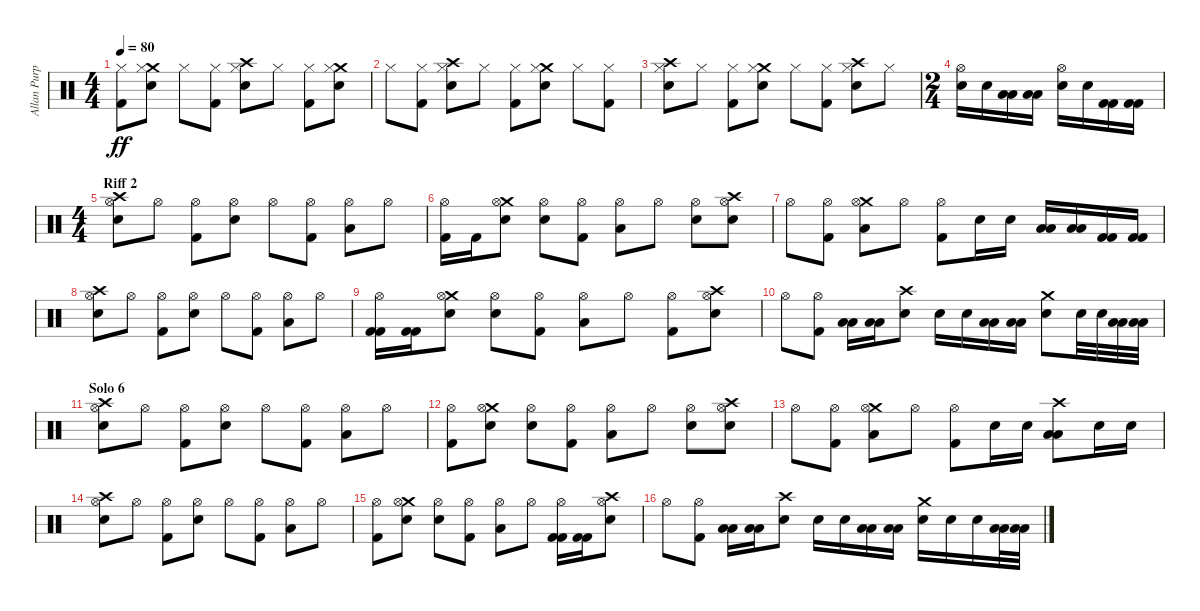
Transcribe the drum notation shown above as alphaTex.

\track ("Allan Purple" "Allan Purp") {instrument percussion}
\staff {score}
\articulation defaults
\ts (4 4)
\tempo 80
\clef neutral
\ks c
("Hi-Hat (closed)" "Kick (hit) 2").8{dy ff} ("Crash medium (hit)" "Hi-Hat (closed)" "Snare (hit) 2").8 "Hi-Hat (closed)".8 ("Hi-Hat (closed)" "Kick (hit) 2").8 ("Crash high (hit)" "Hi-Hat (closed)" "Electric Snare (hit)").8 "Hi-Hat (closed)".8 ("Hi-Hat (closed)" "Kick (hit) 2").8 ("Crash medium (hit)" "Hi-Hat (closed)" "Snare (hit) 2").8 |
"Hi-Hat (closed)".8 ("Hi-Hat (closed)" "Kick (hit) 2").8 ("Crash high (hit)" "Hi-Hat (closed)" "Electric Snare (hit)").8 "Hi-Hat (closed)".8 ("Hi-Hat (closed)" "Kick (hit) 2").8 ("Crash medium (hit)" "Hi-Hat (closed)" "Snare (hit) 2").8 "Hi-Hat (closed)".8 ("Hi-Hat (closed)" "Kick (hit) 2").8 |
("Crash high (hit)" "Hi-Hat (closed)" "Electric Snare (hit)").8 "Hi-Hat (closed)".8 ("Hi-Hat (closed)" "Kick (hit) 2").8 ("Crash medium (hit)" "Hi-Hat (closed)" "Snare (hit) 2").8 "Hi-Hat (closed)".8 ("Hi-Hat (closed)" "Kick (hit) 2").8 ("Crash high (hit)" "Hi-Hat (closed)" "Electric Snare (hit)").8 "Hi-Hat (closed)".8 |
\ts (2 4)
("Hi-Hat (open)" "Electric Snare (hit)").16 "Electric Snare (hit)".16 ("Low Tom (hit)" "Low Tom (hit)").16 ("Low Tom (hit)" "Low Tom (hit)").16 ("Hi-Hat (open)" "Snare (hit) 2").16 "Snare (hit) 2".16 ("Kick (hit) 2" "Kick (hit) 2").16 ("Kick (hit) 2" "Kick (hit) 2").16 |
\ts (4 4)
\section ("" "Riff 2")
("Crash high (hit)" "Hi-Hat (open)" "Snare (hit) 2").8 "Hi-Hat (open)".8 ("Hi-Hat (open)" "Kick (hit) 2").8 ("Hi-Hat (open)" "Snare (hit) 2").8 "Hi-Hat (open)".8 ("Hi-Hat (open)" "Kick (hit) 2").8 ("Hi-Hat (open)" "Low Tom (hit)").8 "Hi-Hat (open)".8 |
("Hi-Hat (open)" "Kick (hit) 2").16 "Kick (hit) 2".16 ("Crash medium (hit)" "Hi-Hat (open)" "Snare (hit) 2").8 ("Hi-Hat (open)" "Electric Snare (hit)").8 ("Hi-Hat (open)" "Kick (hit) 2").8 ("Hi-Hat (open)" "Low Tom (hit)").8 "Hi-Hat (open)".8 ("Hi-Hat (open)" "Snare (hit) 2").8 ("Crash high (hit)" "Hi-Hat (open)" "Snare (hit) 2").8 |
"Hi-Hat (open)".8 ("Hi-Hat (open)" "Kick (hit) 2").8 ("Crash medium (hit)" "Hi-Hat (open)" "Low Tom (hit)").8 "Hi-Hat (open)".8 ("Hi-Hat (open)" "Kick (hit) 2").8 "Electric Snare (hit)".16 "Electric Snare (hit)".16 ("Low Tom (hit)" "Low Tom (hit)").16 ("Low Tom (hit)" "Low Tom (hit)").16 ("Kick (hit) 2" "Kick (hit) 2").16 ("Kick (hit) 2" "Kick (hit) 2").16 |
("Crash high (hit)" "Hi-Hat (open)" "Snare (hit) 2").8 "Hi-Hat (open)".8 ("Hi-Hat (open)" "Kick (hit) 2").8 ("Hi-Hat (open)" "Snare (hit) 2").8 "Hi-Hat (open)".8 ("Hi-Hat (open)" "Kick (hit) 2").8 ("Hi-Hat (open)" "Low Tom (hit)").8 "Hi-Hat (open)".8 |
("Hi-Hat (open)" "Kick (hit) 2" "Kick (hit) 2").16 ("Kick (hit) 2" "Kick (hit) 2").16 ("Crash medium (hit)" "Hi-Hat (open)" "Snare (hit) 2").8 ("Hi-Hat (open)" "Electric Snare (hit)").8 ("Hi-Hat (open)" "Kick (hit) 2").8 ("Hi-Hat (open)" "Low Tom (hit)").8 "Hi-Hat (open)".8 ("Hi-Hat (open)" "Kick (hit) 2").8 ("Crash high (hit)" "Hi-Hat (open)" "Snare (hit) 2").8 |
"Hi-Hat (open)".8 ("Hi-Hat (open)" "Kick (hit) 2").8 ("Low Tom (hit)" "Low Tom (hit)").16 ("Low Tom (hit)" "Low Tom (hit)").16 ("Crash high (hit)" "Electric Snare (hit)").8 "Electric Snare (hit)".16 "Electric Snare (hit)".16 ("Low Tom (hit)" "Low Tom (hit)").16 ("Low Tom (hit)" "Low Tom (hit)").16 ("Crash medium (hit)" "Snare (hit) 2").8 "Electric Snare (hit)".32 "Electric Snare (hit)".32 ("Low Tom (hit)" "Low Tom (hit)").32 ("Low Tom (hit)" "Low Tom (hit)").32 |
\section ("" "Solo 6")
("Crash high (hit)" "Hi-Hat (open)" "Snare (hit) 2").8 "Hi-Hat (open)".8 ("Hi-Hat (open)" "Kick (hit) 2").8 ("Hi-Hat (open)" "Snare (hit) 2").8 "Hi-Hat (open)".8 ("Hi-Hat (open)" "Kick (hit) 2").8 ("Hi-Hat (open)" "Low Tom (hit)").8 "Hi-Hat (open)".8 |
("Hi-Hat (open)" "Kick (hit) 2").8 ("Crash medium (hit)" "Hi-Hat (open)" "Snare (hit) 2").8 ("Hi-Hat (open)" "Electric Snare (hit)").8 ("Hi-Hat (open)" "Kick (hit) 2").8 ("Hi-Hat (open)" "Low Tom (hit)").8 "Hi-Hat (open)".8 ("Hi-Hat (open)" "Snare (hit) 2").8 ("Crash high (hit)" "Hi-Hat (open)" "Snare (hit) 2").8 |
"Hi-Hat (open)".8 ("Hi-Hat (open)" "Kick (hit) 2").8 ("Crash medium (hit)" "Hi-Hat (open)" "Low Tom (hit)").8 "Hi-Hat (open)".8 ("Hi-Hat (open)" "Kick (hit) 2").8 "Electric Snare (hit)".16 "Electric Snare (hit)".16 ("Crash high (hit)" "Low Tom (hit)" "Low Tom (hit)").8 "Electric Snare (hit)".16 "Electric Snare (hit)".16 |
("Crash high (hit)" "Hi-Hat (open)" "Snare (hit) 2").8 "Hi-Hat (open)".8 ("Hi-Hat (open)" "Kick (hit) 2").8 ("Hi-Hat (open)" "Snare (hit) 2").8 "Hi-Hat (open)".8 ("Hi-Hat (open)" "Kick (hit) 2").8 ("Hi-Hat (open)" "Low Tom (hit)").8 "Hi-Hat (open)".8 |
("Hi-Hat (open)" "Kick (hit) 2").8 ("Crash medium (hit)" "Hi-Hat (open)" "Snare (hit) 2").8 ("Hi-Hat (open)" "Electric Snare (hit)").8 ("Hi-Hat (open)" "Kick (hit) 2").8 ("Hi-Hat (open)" "Low Tom (hit)").8 "Hi-Hat (open)".8 ("Hi-Hat (open)" "Kick (hit) 2" "Kick (hit) 2").16 ("Kick (hit) 2" "Kick (hit) 2").16 ("Crash high (hit)" "Hi-Hat (open)" "Snare (hit) 2").8 |
"Hi-Hat (open)".8 ("Hi-Hat (open)" "Kick (hit) 2").8 ("Low Tom (hit)" "Low Tom (hit)").16 ("Low Tom (hit)" "Low Tom (hit)").16 ("Crash high (hit)" "Electric Snare (hit)").8 "Electric Snare (hit)".16 "Electric Snare (hit)".16 ("Low Tom (hit)" "Low Tom (hit)").16 ("Low Tom (hit)" "Low Tom (hit)").16 ("Crash medium (hit)" "Snare (hit) 2").16 "Snare (hit) 2".16 "Electric Snare (hit)".16 ("Low Tom (hit)" "Low Tom (hit)").32 ("Low Tom (hit)" "Low Tom (hit)").32
